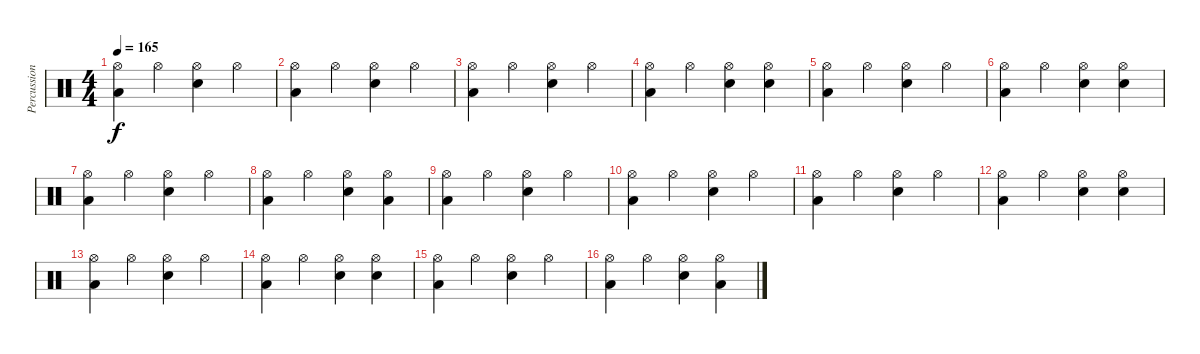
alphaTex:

\track ("Percussion" "Percussion") {instrument percussion}
\staff {score}
\articulation defaults
\ts (4 4)
\tempo 165
\clef neutral
\ks c
("Low Tom (hit)" "Hi-Hat (open)").4{dy f} "Hi-Hat (open)".4 ("Hi-Hat (open)" "Electric Snare (hit)").4 "Hi-Hat (open)".4 |
("Low Tom (hit)" "Hi-Hat (open)").4 "Hi-Hat (open)".4 ("Hi-Hat (open)" "Electric Snare (hit)").4 "Hi-Hat (open)".4 |
("Low Tom (hit)" "Hi-Hat (open)").4 "Hi-Hat (open)".4 ("Hi-Hat (open)" "Electric Snare (hit)").4 "Hi-Hat (open)".4 |
("Low Tom (hit)" "Hi-Hat (open)").4 "Hi-Hat (open)".4 ("Hi-Hat (open)" "Electric Snare (hit)").4 ("Hi-Hat (open)" "Electric Snare (hit)").4 |
("Low Tom (hit)" "Hi-Hat (open)").4 "Hi-Hat (open)".4 ("Hi-Hat (open)" "Electric Snare (hit)").4 "Hi-Hat (open)".4 |
("Low Tom (hit)" "Hi-Hat (open)").4 "Hi-Hat (open)".4 ("Hi-Hat (open)" "Electric Snare (hit)").4 ("Hi-Hat (open)" "Electric Snare (hit)").4 |
("Low Tom (hit)" "Hi-Hat (open)").4 "Hi-Hat (open)".4 ("Hi-Hat (open)" "Electric Snare (hit)").4 "Hi-Hat (open)".4 |
("Low Tom (hit)" "Hi-Hat (open)").4 "Hi-Hat (open)".4 ("Hi-Hat (open)" "Electric Snare (hit)").4 ("Low Tom (hit)" "Hi-Hat (open)").4 |
("Low Tom (hit)" "Hi-Hat (open)").4 "Hi-Hat (open)".4 ("Hi-Hat (open)" "Electric Snare (hit)").4 "Hi-Hat (open)".4 |
("Low Tom (hit)" "Hi-Hat (open)").4 "Hi-Hat (open)".4 ("Hi-Hat (open)" "Electric Snare (hit)").4 "Hi-Hat (open)".4 |
("Low Tom (hit)" "Hi-Hat (open)").4 "Hi-Hat (open)".4 ("Hi-Hat (open)" "Electric Snare (hit)").4 "Hi-Hat (open)".4 |
("Low Tom (hit)" "Hi-Hat (open)").4 "Hi-Hat (open)".4 ("Hi-Hat (open)" "Electric Snare (hit)").4 ("Hi-Hat (open)" "Electric Snare (hit)").4 |
("Low Tom (hit)" "Hi-Hat (open)").4 "Hi-Hat (open)".4 ("Hi-Hat (open)" "Electric Snare (hit)").4 "Hi-Hat (open)".4 |
("Low Tom (hit)" "Hi-Hat (open)").4 "Hi-Hat (open)".4 ("Hi-Hat (open)" "Electric Snare (hit)").4 ("Hi-Hat (open)" "Electric Snare (hit)").4 |
("Low Tom (hit)" "Hi-Hat (open)").4 "Hi-Hat (open)".4 ("Hi-Hat (open)" "Electric Snare (hit)").4 "Hi-Hat (open)".4 |
("Low Tom (hit)" "Hi-Hat (open)").4 "Hi-Hat (open)".4 ("Hi-Hat (open)" "Electric Snare (hit)").4 ("Low Tom (hit)" "Hi-Hat (open)").4
